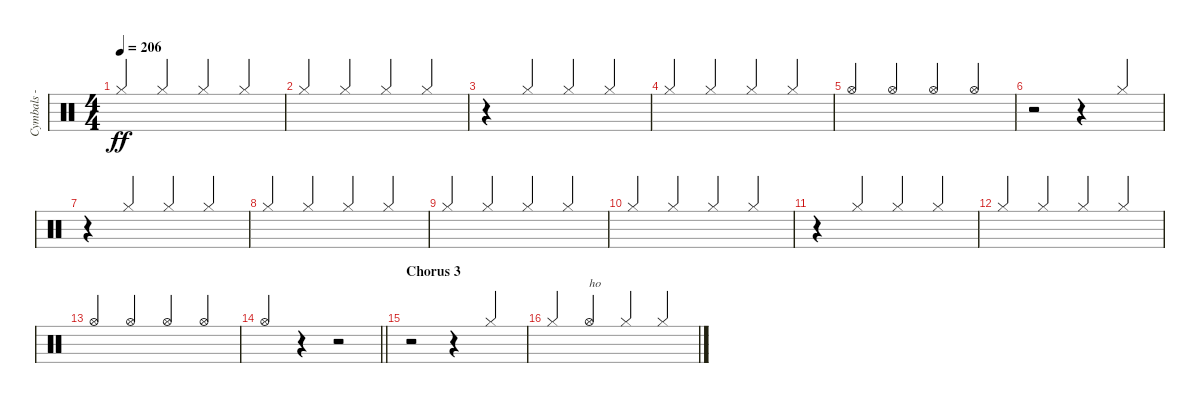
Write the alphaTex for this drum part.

\track ("Cymbals - hi-hat" "Cymbals - ") {instrument percussion}
\staff {score}
\articulation defaults
\ts (4 4)
\tempo 206
\clef neutral
\ks c "Hi-Hat (closed)".4{dy ff beam Up} "Hi-Hat (closed)".4{beam Up} "Hi-Hat (closed)".4{beam Up} "Hi-Hat (closed)".4{beam Up}
|
"Hi-Hat (closed)".4{beam Up} "Hi-Hat (closed)".4{beam Up} "Hi-Hat (closed)".4{beam Up} "Hi-Hat (closed)".4{beam Up} |
r.4 "Hi-Hat (closed)".4{beam Up} "Hi-Hat (closed)".4{beam Up} "Hi-Hat (closed)".4{beam Up} |
"Hi-Hat (closed)".4{beam Up} "Hi-Hat (closed)".4{beam Up} "Hi-Hat (closed)".4{beam Up} "Hi-Hat (closed)".4{beam Up} |
"Hi-Hat (open)".4{beam Up} "Hi-Hat (open)".4{beam Up} "Hi-Hat (open)".4{beam Up} "Hi-Hat (open)".4{beam Up} |
r.2 r.4 "Hi-Hat (closed)".4{beam Up} |
r.4 "Hi-Hat (closed)".4{beam Up} "Hi-Hat (closed)".4{beam Up} "Hi-Hat (closed)".4{beam Up} |
"Hi-Hat (closed)".4{beam Up} "Hi-Hat (closed)".4{beam Up} "Hi-Hat (closed)".4{beam Up} "Hi-Hat (closed)".4{beam Up} |
"Hi-Hat (closed)".4{beam Up} "Hi-Hat (closed)".4{beam Up} "Hi-Hat (closed)".4{beam Up} "Hi-Hat (closed)".4{beam Up} |
"Hi-Hat (closed)".4{beam Up} "Hi-Hat (closed)".4{beam Up} "Hi-Hat (closed)".4{beam Up} "Hi-Hat (closed)".4{beam Up} |
r.4 "Hi-Hat (closed)".4{beam Up} "Hi-Hat (closed)".4{beam Up} "Hi-Hat (closed)".4{beam Up} |
"Hi-Hat (closed)".4{beam Up} "Hi-Hat (closed)".4{beam Up} "Hi-Hat (closed)".4{beam Up} "Hi-Hat (closed)".4{beam Up} |
"Hi-Hat (open)".4{beam Up} "Hi-Hat (open)".4{beam Up} "Hi-Hat (open)".4{beam Up} "Hi-Hat (open)".4{beam Up} |
\barLineRight lightlight "Hi-Hat (open)".4{beam Up}
r.4 r.2 |
\section ("" "Chorus 3")
r.2 r.4 "Hi-Hat (closed)".4{beam Up} |
"Hi-Hat (closed)".4{beam Up} "Hi-Hat (open)".4{txt "ho" beam Up} "Hi-Hat (closed)".4{beam Up} "Hi-Hat (closed)".4{beam Up}
